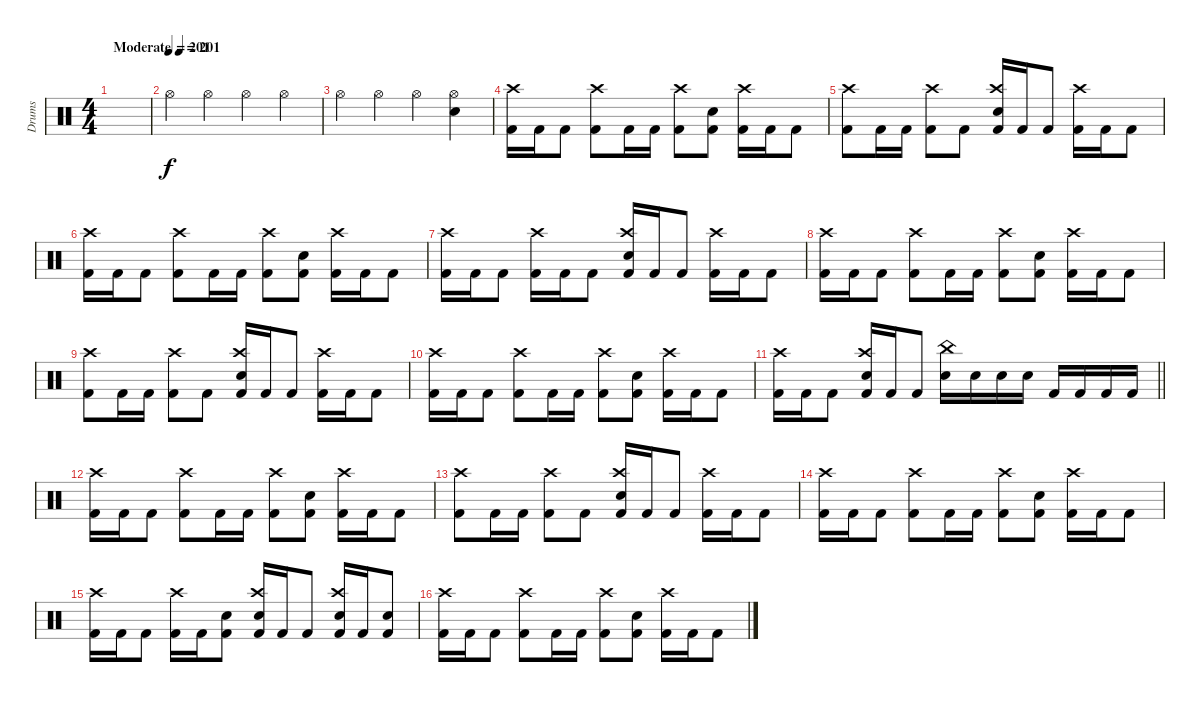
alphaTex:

\track ("Drums" "Drums") {instrument percussion}
\staff
\articulation defaults
\ts (4 4)
\tempo (201 "Moderate")
\tempo 125
\tempo (201 "Moderate")
\clef neutral
\ks c
|
\tempo (201)
"Hi-Hat (open)".4 "Hi-Hat (open)".4 "Hi-Hat (open)".4 "Hi-Hat (open)".4 |
"Hi-Hat (open)".4 "Hi-Hat (open)".4 "Hi-Hat (open)".4 ("Hi-Hat (open)" "Electric Snare (hit)").4 |
("Crash high (hit)" "Kick (hit) 2").16 "Kick (hit) 2".16 "Kick (hit) 2".8 ("Crash high (hit)" "Kick (hit) 2").8 "Kick (hit) 2".16 "Kick (hit) 2".16 ("Crash high (hit)" "Kick (hit) 2").8 ("Electric Snare (hit)" "Kick (hit) 2").8 ("Crash high (hit)" "Kick (hit) 2").16 "Kick (hit) 2".16 "Kick (hit) 2".8 |
("Crash high (hit)" "Kick (hit) 2").8 "Kick (hit) 2".16 "Kick (hit) 2".16 ("Crash high (hit)" "Kick (hit) 2").8 "Kick (hit) 2".8 ("Crash high (hit)" "Electric Snare (hit)" "Kick (hit) 2").16 "Kick (hit) 2".16 "Kick (hit) 2".8 ("Crash high (hit)" "Kick (hit) 2").16 "Kick (hit) 2".16 "Kick (hit) 2".8 |
("Crash high (hit)" "Kick (hit) 2").16 "Kick (hit) 2".16 "Kick (hit) 2".8 ("Crash high (hit)" "Kick (hit) 2").8 "Kick (hit) 2".16 "Kick (hit) 2".16 ("Crash high (hit)" "Kick (hit) 2").8 ("Electric Snare (hit)" "Kick (hit) 2").8 ("Crash high (hit)" "Kick (hit) 2").16 "Kick (hit) 2".16 "Kick (hit) 2".8 |
("Crash high (hit)" "Kick (hit) 2").16 "Kick (hit) 2".16 "Kick (hit) 2".8 ("Crash high (hit)" "Kick (hit) 2").16 "Kick (hit) 2".16 "Kick (hit) 2".8 ("Crash high (hit)" "Electric Snare (hit)" "Kick (hit) 2").16 "Kick (hit) 2".16 "Kick (hit) 2".8 ("Crash high (hit)" "Kick (hit) 2").16 "Kick (hit) 2".16 "Kick (hit) 2".8 |
("Crash high (hit)" "Kick (hit) 2").16 "Kick (hit) 2".16 "Kick (hit) 2".8 ("Crash high (hit)" "Kick (hit) 2").8 "Kick (hit) 2".16 "Kick (hit) 2".16 ("Crash high (hit)" "Kick (hit) 2").8 ("Electric Snare (hit)" "Kick (hit) 2").8 ("Crash high (hit)" "Kick (hit) 2").16 "Kick (hit) 2".16 "Kick (hit) 2".8 |
("Crash high (hit)" "Kick (hit) 2").8 "Kick (hit) 2".16 "Kick (hit) 2".16 ("Crash high (hit)" "Kick (hit) 2").8 "Kick (hit) 2".8 ("Crash high (hit)" "Electric Snare (hit)" "Kick (hit) 2").16 "Kick (hit) 2".16 "Kick (hit) 2".8 ("Crash high (hit)" "Kick (hit) 2").16 "Kick (hit) 2".16 "Kick (hit) 2".8 |
("Crash high (hit)" "Kick (hit) 2").16 "Kick (hit) 2".16 "Kick (hit) 2".8 ("Crash high (hit)" "Kick (hit) 2").8 "Kick (hit) 2".16 "Kick (hit) 2".16 ("Crash high (hit)" "Kick (hit) 2").8 ("Electric Snare (hit)" "Kick (hit) 2").8 ("Crash high (hit)" "Kick (hit) 2").16 "Kick (hit) 2".16 "Kick (hit) 2".8 |
\barLineRight lightlight
("Crash high (hit)" "Kick (hit) 2").16 "Kick (hit) 2".16 "Kick (hit) 2".8 ("Crash high (hit)" "Electric Snare (hit)" "Kick (hit) 2").16 "Kick (hit) 2".16 "Kick (hit) 2".8 ("China (hit)" "Electric Snare (hit)").16 "Electric Snare (hit)".16 "Electric Snare (hit)".16 "Electric Snare (hit)".16 "Kick (hit) 2".16 "Kick (hit) 2".16 "Kick (hit) 2".16 "Kick (hit) 2".16 |
("Crash high (hit)" "Kick (hit) 2").16 "Kick (hit) 2".16 "Kick (hit) 2".8 ("Crash high (hit)" "Kick (hit) 2").8 "Kick (hit) 2".16 "Kick (hit) 2".16 ("Crash high (hit)" "Kick (hit) 2").8 ("Electric Snare (hit)" "Kick (hit) 2").8 ("Crash high (hit)" "Kick (hit) 2").16 "Kick (hit) 2".16 "Kick (hit) 2".8 |
("Crash high (hit)" "Kick (hit) 2").8 "Kick (hit) 2".16 "Kick (hit) 2".16 ("Crash high (hit)" "Kick (hit) 2").8 "Kick (hit) 2".8 ("Crash high (hit)" "Electric Snare (hit)" "Kick (hit) 2").16 "Kick (hit) 2".16 "Kick (hit) 2".8 ("Crash high (hit)" "Kick (hit) 2").16 "Kick (hit) 2".16 "Kick (hit) 2".8 |
("Crash high (hit)" "Kick (hit) 2").16 "Kick (hit) 2".16 "Kick (hit) 2".8 ("Crash high (hit)" "Kick (hit) 2").8 "Kick (hit) 2".16 "Kick (hit) 2".16 ("Crash high (hit)" "Kick (hit) 2").8 ("Electric Snare (hit)" "Kick (hit) 2").8 ("Crash high (hit)" "Kick (hit) 2").16 "Kick (hit) 2".16 "Kick (hit) 2".8 |
("Crash high (hit)" "Kick (hit) 2").16 "Kick (hit) 2".16 "Kick (hit) 2".8 ("Crash high (hit)" "Kick (hit) 2").16 "Kick (hit) 2".16 ("Electric Snare (hit)" "Kick (hit) 2").8 ("Crash high (hit)" "Electric Snare (hit)" "Kick (hit) 2").16 "Kick (hit) 2".16 "Kick (hit) 2".8 ("Crash high (hit)" "Electric Snare (hit)" "Kick (hit) 2").16 "Kick (hit) 2".16 ("Electric Snare (hit)" "Kick (hit) 2").8 |
("Crash high (hit)" "Kick (hit) 2").16 "Kick (hit) 2".16 "Kick (hit) 2".8 ("Crash high (hit)" "Kick (hit) 2").8 "Kick (hit) 2".16 "Kick (hit) 2".16 ("Crash high (hit)" "Kick (hit) 2").8 ("Electric Snare (hit)" "Kick (hit) 2").8 ("Crash high (hit)" "Kick (hit) 2").16 "Kick (hit) 2".16 "Kick (hit) 2".8
